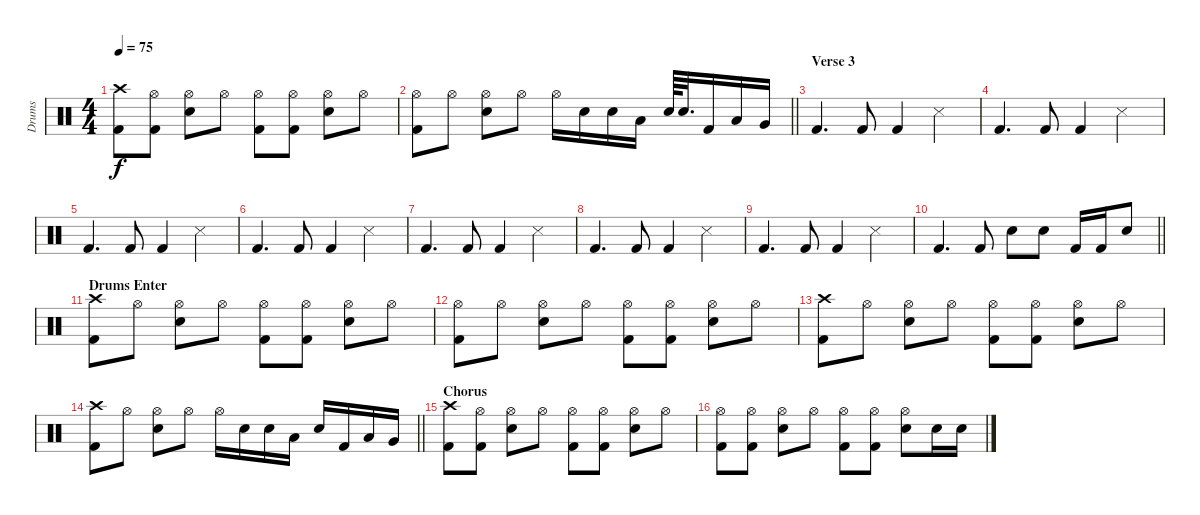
\track ("Drums" "Drums") {instrument percussion}
\staff {score}
\articulation defaults
\ts (4 4)
\tempo 75
\clef neutral
\ks c
("Crash high (hit)" "Kick (hit) 2").8{dy f} ("Hi-Hat (open)" "Kick (hit) 2").8 ("Hi-Hat (open)" "Snare (hit) 2").8 "Hi-Hat (open)".8 ("Hi-Hat (open)" "Kick (hit) 2").8 ("Hi-Hat (open)" "Kick (hit) 2").8 ("Hi-Hat (open)" "Snare (hit) 2").8 "Hi-Hat (open)".8 |
\barLineRight lightlight
("Hi-Hat (open)" "Kick (hit) 2").8 "Hi-Hat (open)".8 ("Hi-Hat (open)" "Snare (hit) 2").8 "Hi-Hat (open)".8 "Hi-Hat (open)".16 "Snare (hit) 2".16 "Snare (hit) 2".16 "Low Tom (hit)".16 "Snare (hit) 2".64 "Snare (hit) 2".32{d} "Kick (hit) 2".16 "Low Tom (hit)".16 "Very Low Tom (hit)".16 |
\section ("" "Verse 3")
"Kick (hit) 2".4{d} "Kick (hit) 2".8 "Kick (hit) 2".4 "Snare (side stick) 3".4 |
"Kick (hit) 2".4{d} "Kick (hit) 2".8 "Kick (hit) 2".4 "Snare (side stick) 3".4 |
"Kick (hit) 2".4{d} "Kick (hit) 2".8 "Kick (hit) 2".4 "Snare (side stick) 3".4 |
"Kick (hit) 2".4{d} "Kick (hit) 2".8 "Kick (hit) 2".4 "Snare (side stick) 3".4 |
"Kick (hit) 2".4{d} "Kick (hit) 2".8 "Kick (hit) 2".4 "Snare (side stick) 3".4 |
"Kick (hit) 2".4{d} "Kick (hit) 2".8 "Kick (hit) 2".4 "Snare (side stick) 3".4 |
"Kick (hit) 2".4{d} "Kick (hit) 2".8 "Kick (hit) 2".4 "Snare (side stick) 3".4 |
\barLineRight lightlight "Kick (hit) 2".4{d} "Kick (hit) 2".8 "Snare (hit) 2".8 "Snare (hit) 2".8 "Kick (hit) 2".16 "Kick (hit) 2".16 "Snare (hit) 2".8
|
\section ("" "Drums Enter")
("Crash high (hit)" "Kick (hit) 2").8 "Hi-Hat (open)".8 ("Hi-Hat (open)" "Snare (hit) 2").8 "Hi-Hat (open)".8 ("Hi-Hat (open)" "Kick (hit) 2").8 ("Hi-Hat (open)" "Kick (hit) 2").8 ("Hi-Hat (open)" "Snare (hit) 2").8 "Hi-Hat (open)".8 |
("Hi-Hat (open)" "Kick (hit) 2").8 "Hi-Hat (open)".8 ("Hi-Hat (open)" "Snare (hit) 2").8 "Hi-Hat (open)".8 ("Hi-Hat (open)" "Kick (hit) 2").8 ("Hi-Hat (open)" "Kick (hit) 2").8 ("Hi-Hat (open)" "Snare (hit) 2").8 "Hi-Hat (open)".8 |
("Crash high (hit)" "Kick (hit) 2").8 "Hi-Hat (open)".8 ("Hi-Hat (open)" "Snare (hit) 2").8 "Hi-Hat (open)".8 ("Hi-Hat (open)" "Kick (hit) 2").8 ("Hi-Hat (open)" "Kick (hit) 2").8 ("Hi-Hat (open)" "Snare (hit) 2").8 "Hi-Hat (open)".8 |
\barLineRight lightlight
("Crash high (hit)" "Kick (hit) 2").8 "Hi-Hat (open)".8 ("Hi-Hat (open)" "Snare (hit) 2").8 "Hi-Hat (open)".8 "Hi-Hat (open)".16 "Snare (hit) 2".16 "Snare (hit) 2".16 "Low Tom (hit)".16 "Snare (hit) 2".16 "Kick (hit) 2".16 "Low Tom (hit)".16 "Very Low Tom (hit)".16 |
\section ("" "Chorus")
("Crash high (hit)" "Kick (hit) 2").8 ("Hi-Hat (open)" "Kick (hit) 2").8 ("Hi-Hat (open)" "Snare (hit) 2").8 "Hi-Hat (open)".8 ("Hi-Hat (open)" "Kick (hit) 2").8 ("Hi-Hat (open)" "Kick (hit) 2").8 ("Hi-Hat (open)" "Snare (hit) 2").8 "Hi-Hat (open)".8 |
("Hi-Hat (open)" "Kick (hit) 2").8 ("Hi-Hat (open)" "Kick (hit) 2").8 ("Hi-Hat (open)" "Snare (hit) 2").8 "Hi-Hat (open)".8 ("Hi-Hat (open)" "Kick (hit) 2").8 ("Hi-Hat (open)" "Kick (hit) 2").8 ("Hi-Hat (open)" "Snare (hit) 2").8 "Snare (hit) 2".16 "Snare (hit) 2".16
